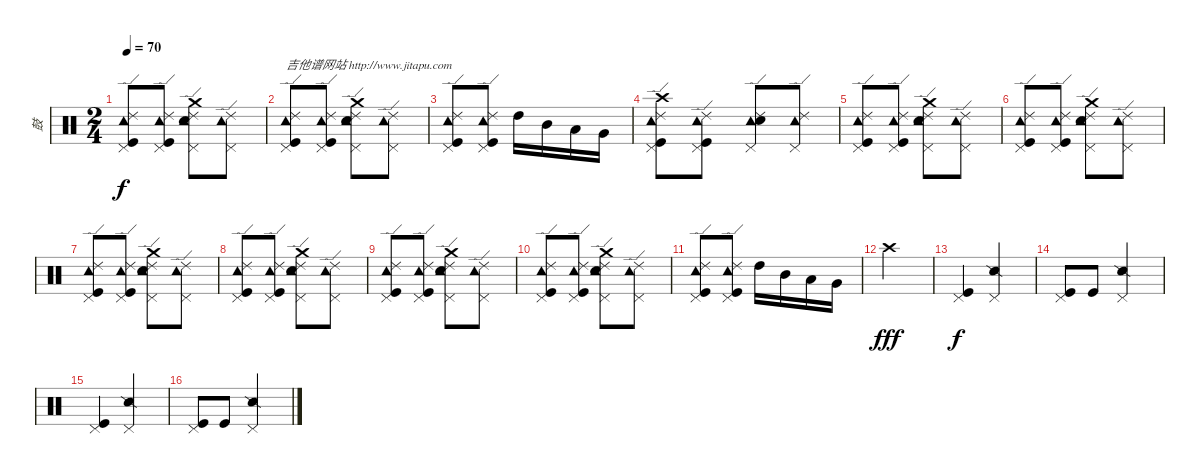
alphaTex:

\track ("鼓" "鼓") {instrument percussion}
\staff {score}
\articulation defaults
\ts (2 4)
\tempo 70
\clef neutral
\ks c
("Pedal Hi-Hat (hit)" "Ride (edge) 2" "Tambourine (hit)" "Kick (hit)").8{dy f} ("Pedal Hi-Hat (hit)" "Ride (edge) 2" "Tambourine (hit)" "Kick (hit)").8 ("Pedal Hi-Hat (hit)" "Ride (edge) 2" "Tambourine (hit)" "Electric Snare (hit)" "Crash medium (hit)").8 ("Pedal Hi-Hat (hit)" "Ride (edge) 2" "Tambourine (hit)").8 |
("Pedal Hi-Hat (hit)" "Ride (edge) 2" "Tambourine (hit)" "Kick (hit)").8{txt "吉他谱网站 http://www.jitapu.com"} ("Pedal Hi-Hat (hit)" "Ride (edge) 2" "Tambourine (hit)" "Kick (hit)").8 ("Pedal Hi-Hat (hit)" "Ride (edge) 2" "Tambourine (hit)" "Electric Snare (hit)" "Crash medium (hit)").8 ("Pedal Hi-Hat (hit)" "Ride (edge) 2" "Tambourine (hit)").8 |
("Pedal Hi-Hat (hit)" "Ride (edge) 2" "Tambourine (hit)" "Kick (hit)").8 ("Pedal Hi-Hat (hit)" "Ride (edge) 2" "Tambourine (hit)" "Kick (hit)").8 "High Tom (hit)".16 "Mid Tom (hit)".16 "Low Tom (hit)".16 "Very Low Tom (hit)".16 |
("Pedal Hi-Hat (hit)" "Ride (edge) 2" "Tambourine (hit)" "Kick (hit)" "Crash high (hit)").8 ("Pedal Hi-Hat (hit)" "Ride (edge) 2" "Tambourine (hit)" "Kick (hit)").8 ("Pedal Hi-Hat (hit)" "Ride (edge) 2" "Tambourine (hit)" "Electric Snare (hit)").8 ("Pedal Hi-Hat (hit)" "Ride (edge) 2" "Tambourine (hit)").8 |
("Pedal Hi-Hat (hit)" "Ride (edge) 2" "Tambourine (hit)" "Kick (hit)").8 ("Pedal Hi-Hat (hit)" "Ride (edge) 2" "Tambourine (hit)" "Kick (hit)").8 ("Pedal Hi-Hat (hit)" "Ride (edge) 2" "Tambourine (hit)" "Electric Snare (hit)" "Crash medium (hit)").8 ("Pedal Hi-Hat (hit)" "Ride (edge) 2" "Tambourine (hit)").8 |
("Pedal Hi-Hat (hit)" "Ride (edge) 2" "Tambourine (hit)" "Kick (hit)").8 ("Pedal Hi-Hat (hit)" "Ride (edge) 2" "Tambourine (hit)" "Kick (hit)").8 ("Pedal Hi-Hat (hit)" "Ride (edge) 2" "Tambourine (hit)" "Electric Snare (hit)" "Crash medium (hit)").8 ("Pedal Hi-Hat (hit)" "Ride (edge) 2" "Tambourine (hit)").8 |
("Pedal Hi-Hat (hit)" "Ride (edge) 2" "Tambourine (hit)" "Kick (hit)").8 ("Pedal Hi-Hat (hit)" "Ride (edge) 2" "Tambourine (hit)" "Kick (hit)").8 ("Pedal Hi-Hat (hit)" "Ride (edge) 2" "Tambourine (hit)" "Electric Snare (hit)" "Crash medium (hit)").8 ("Pedal Hi-Hat (hit)" "Ride (edge) 2" "Tambourine (hit)").8 |
("Pedal Hi-Hat (hit)" "Ride (edge) 2" "Tambourine (hit)" "Kick (hit)").8 ("Pedal Hi-Hat (hit)" "Ride (edge) 2" "Tambourine (hit)" "Kick (hit)").8 ("Pedal Hi-Hat (hit)" "Ride (edge) 2" "Tambourine (hit)" "Electric Snare (hit)" "Crash medium (hit)").8 ("Pedal Hi-Hat (hit)" "Ride (edge) 2" "Tambourine (hit)").8 |
("Pedal Hi-Hat (hit)" "Ride (edge) 2" "Tambourine (hit)" "Kick (hit)").8 ("Pedal Hi-Hat (hit)" "Ride (edge) 2" "Tambourine (hit)" "Kick (hit)").8 ("Pedal Hi-Hat (hit)" "Ride (edge) 2" "Tambourine (hit)" "Electric Snare (hit)" "Crash medium (hit)").8 ("Pedal Hi-Hat (hit)" "Ride (edge) 2" "Tambourine (hit)").8 |
("Pedal Hi-Hat (hit)" "Ride (edge) 2" "Tambourine (hit)" "Kick (hit)").8 ("Pedal Hi-Hat (hit)" "Ride (edge) 2" "Tambourine (hit)" "Kick (hit)").8 ("Pedal Hi-Hat (hit)" "Ride (edge) 2" "Tambourine (hit)" "Electric Snare (hit)" "Crash medium (hit)").8 ("Pedal Hi-Hat (hit)" "Ride (edge) 2" "Tambourine (hit)").8 |
("Pedal Hi-Hat (hit)" "Ride (edge) 2" "Tambourine (hit)" "Kick (hit)").8 ("Pedal Hi-Hat (hit)" "Ride (edge) 2" "Tambourine (hit)" "Kick (hit)").8 "High Tom (hit)".16 "Mid Tom (hit)".16 "Low Tom (hit)".16 "Very Low Tom (hit)".16 |
"Crash high (hit)".2{dy fff} |
("Pedal Hi-Hat (hit)" "Kick (hit)").4{dy f} ("Pedal Hi-Hat (hit)" "Snare (side stick) 2").4 |
("Pedal Hi-Hat (hit)" "Kick (hit)").8 "Kick (hit)".8 ("Pedal Hi-Hat (hit)" "Snare (side stick) 2").4 |
("Pedal Hi-Hat (hit)" "Kick (hit)").4 ("Pedal Hi-Hat (hit)" "Snare (side stick) 2").4 |
("Pedal Hi-Hat (hit)" "Kick (hit)").8 "Kick (hit)".8 ("Pedal Hi-Hat (hit)" "Snare (side stick) 2").4
